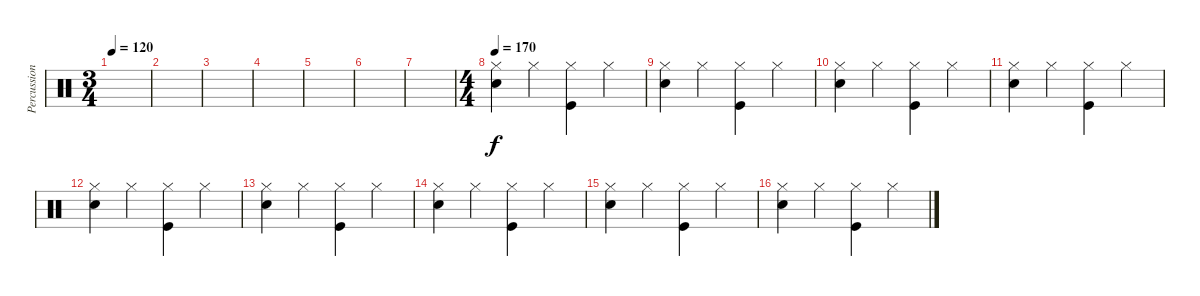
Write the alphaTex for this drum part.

\track ("Percussioni" "Percussion") {instrument percussion}
\staff {score}
\articulation defaults
\ts (3 4)
\tempo 120
\clef neutral
\ks c
|
|
|
|
|
|
|
\ts (4 4)
\tempo 170
("Electric Snare (hit)" "Hi-Hat (closed)").4 "Hi-Hat (closed)".4 ("Kick (hit)" "Hi-Hat (closed)").4 "Hi-Hat (closed)".4 |
("Electric Snare (hit)" "Hi-Hat (closed)").4 "Hi-Hat (closed)".4 ("Kick (hit)" "Hi-Hat (closed)").4 "Hi-Hat (closed)".4 |
("Electric Snare (hit)" "Hi-Hat (closed)").4 "Hi-Hat (closed)".4 ("Kick (hit)" "Hi-Hat (closed)").4 "Hi-Hat (closed)".4 |
("Electric Snare (hit)" "Hi-Hat (closed)").4 "Hi-Hat (closed)".4 ("Kick (hit)" "Hi-Hat (closed)").4 "Hi-Hat (closed)".4 |
("Electric Snare (hit)" "Hi-Hat (closed)").4 "Hi-Hat (closed)".4 ("Kick (hit)" "Hi-Hat (closed)").4 "Hi-Hat (closed)".4 |
("Electric Snare (hit)" "Hi-Hat (closed)").4 "Hi-Hat (closed)".4 ("Kick (hit)" "Hi-Hat (closed)").4 "Hi-Hat (closed)".4 |
("Electric Snare (hit)" "Hi-Hat (closed)").4 "Hi-Hat (closed)".4 ("Kick (hit)" "Hi-Hat (closed)").4 "Hi-Hat (closed)".4 |
("Electric Snare (hit)" "Hi-Hat (closed)").4 "Hi-Hat (closed)".4 ("Kick (hit)" "Hi-Hat (closed)").4 "Hi-Hat (closed)".4 |
("Electric Snare (hit)" "Hi-Hat (closed)").4 "Hi-Hat (closed)".4 ("Kick (hit)" "Hi-Hat (closed)").4 "Hi-Hat (closed)".4
